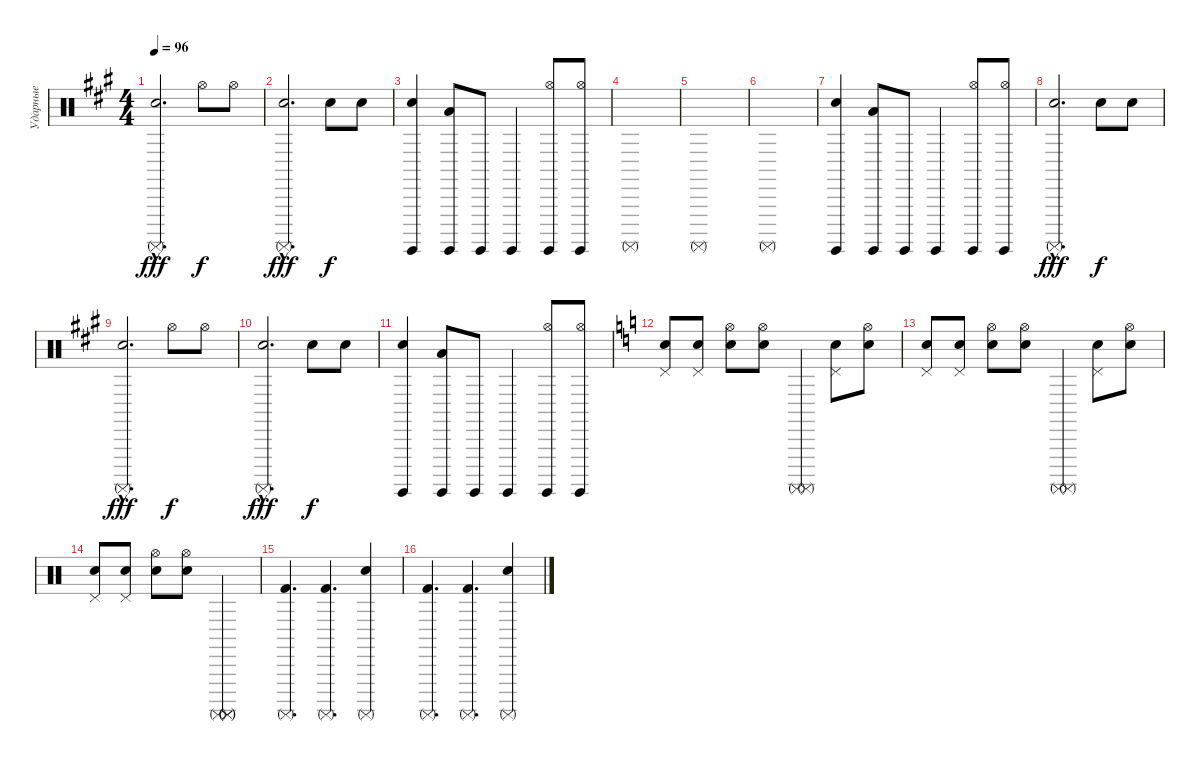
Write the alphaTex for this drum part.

\track ("Ударные" "Ударные") {solo instrument percussion}
\staff {score}
\articulation defaults
\ts (4 4)
\tempo 96
\clef neutral
\ks f#minor
("Snare (hit) 2" "Surdo (mute)"{hac}).2{d dy fff} "Hi-Hat (open)".8{dy f} "Hi-Hat (open)".8 |
("Snare (hit) 2" "Surdo (mute)"{hac}).2{d dy fff} "Electric Snare (hit)".8{dy f} "Electric Snare (hit)".8 |
("Snare (hit) 2" "Surdo (hit)").4 ("Low Floor Tom (hit)" "Surdo (hit)").8 "Surdo (hit)".8 "Surdo (hit)".4 ("Surdo (hit)" "Hi-Hat (open)").8 ("Hi-Hat (open)" "Surdo (hit)").8 |
"Surdo (mute)".1 |
"Surdo (mute)".1 |
"Surdo (mute)".1 |
("Snare (hit) 2" "Surdo (hit)").4 ("Low Floor Tom (hit)" "Surdo (hit)").8 "Surdo (hit)".8 "Surdo (hit)".4 ("Surdo (hit)" "Hi-Hat (open)").8 ("Hi-Hat (open)" "Surdo (hit)").8 |
("Snare (hit) 2" "Surdo (mute)"{hac}).2{d dy fff} "Electric Snare (hit)".8{dy f} "Electric Snare (hit)".8 |
("Snare (hit) 2" "Surdo (mute)"{hac}).2{d dy fff} "Hi-Hat (open)".8{dy f} "Hi-Hat (open)".8 |
("Snare (hit) 2" "Surdo (mute)"{hac}).2{d dy fff} "Electric Snare (hit)".8{dy f} "Electric Snare (hit)".8 |
("Snare (hit) 2" "Surdo (hit)").4 ("Low Floor Tom (hit)" "Surdo (hit)").8 "Surdo (hit)".8 "Surdo (hit)".4 ("Surdo (hit)" "Hi-Hat (open)").8 ("Hi-Hat (open)" "Surdo (hit)").8 |
\ks c
("Snare (hit) 2" "Pedal Hi-Hat (hit)").8 ("Snare (hit) 2" "Pedal Hi-Hat (hit)").8 ("Electric Snare (hit)" "Hi-Hat (open)").8 ("Electric Snare (hit)" "Hi-Hat (open)").8 ("Surdo (mute)" "Surdo (mute)").4 ("Snare (hit) 2" "Pedal Hi-Hat (hit)").8 ("Snare (hit) 2" "Hi-Hat (open)").8 |
("Snare (hit) 2" "Pedal Hi-Hat (hit)").8 ("Snare (hit) 2" "Pedal Hi-Hat (hit)").8 ("Electric Snare (hit)" "Hi-Hat (open)").8 ("Electric Snare (hit)" "Hi-Hat (open)").8 ("Surdo (mute)" "Surdo (mute)").4 ("Snare (hit) 2" "Pedal Hi-Hat (hit)").8 ("Snare (hit) 2" "Hi-Hat (open)").8 |
("Snare (hit) 2" "Pedal Hi-Hat (hit)").8 ("Snare (hit) 2" "Pedal Hi-Hat (hit)").8 ("Electric Snare (hit)" "Hi-Hat (open)").8 ("Electric Snare (hit)" "Hi-Hat (open)").8 ("Surdo (mute)" "Surdo (mute)" "Surdo (mute)").2 |
("Kick (hit) 2" "Surdo (mute)").4{d} ("Kick (hit) 2" "Surdo (mute)").4{d} ("Snare (hit) 2" "Surdo (mute)").4 |
("Kick (hit) 2" "Surdo (mute)").4{d} ("Kick (hit) 2" "Surdo (mute)").4{d} ("Snare (hit) 2" "Surdo (mute)").4
